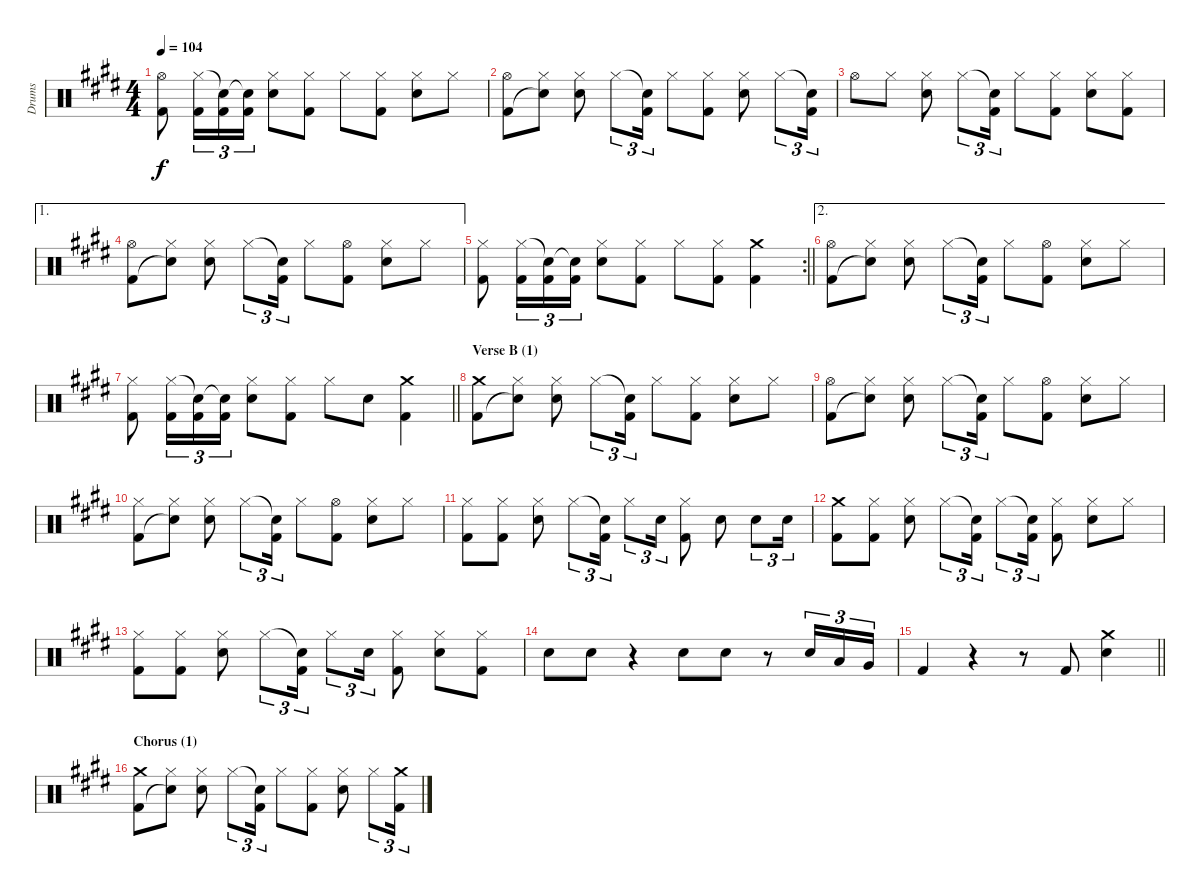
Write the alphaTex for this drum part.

\track ("Drums" "Drums") {instrument percussion}
\staff {score}
\articulation defaults
\ts (4 4)
\tempo 104
\clef neutral
\ks c#minor
("Hi-Hat (open)" "Kick (hit) 2").8{dy f} ("Hi-Hat (closed)" "Kick (hit) 2").16{tu (3 2)} ("Snare (hit)"{t} "Kick (hit) 2").16{tu (3 2)} ("Snare (hit)"{t} "Kick (hit) 2").16{tu (3 2)} ("Hi-Hat (closed)" "Electric Snare (hit)").8 ("Hi-Hat (closed)" "Kick (hit) 2").8 "Hi-Hat (closed)".8 ("Hi-Hat (closed)" "Kick (hit) 2").8 ("Hi-Hat (closed)" "Electric Snare (hit)").8 "Hi-Hat (closed)".8 |
("Hi-Hat (open)" "Kick (hit) 2").8 ("Hi-Hat (closed)" "Snare (hit)"{t}).8 ("Hi-Hat (closed)" "Electric Snare (hit)").8 "Hi-Hat (closed)".8{tu (3 2)} ("Snare (hit)"{t} "Kick (hit) 2").16{tu (3 2)} "Hi-Hat (closed)".8 ("Hi-Hat (closed)" "Kick (hit) 2").8 ("Hi-Hat (closed)" "Electric Snare (hit)").8 "Hi-Hat (closed)".8{tu (3 2)} ("Snare (hit)"{t} "Kick (hit) 2").16{tu (3 2)} |
"Hi-Hat (open)".8 "Hi-Hat (closed)".8 ("Hi-Hat (closed)" "Electric Snare (hit)").8 "Hi-Hat (closed)".8{tu (3 2)} ("Snare (hit)"{t} "Kick (hit) 2").16{tu (3 2)} "Hi-Hat (closed)".8 ("Hi-Hat (closed)" "Kick (hit) 2").8 ("Hi-Hat (closed)" "Electric Snare (hit)").8 ("Hi-Hat (closed)" "Kick (hit) 2").8 |
\ae 1
("Hi-Hat (open)" "Kick (hit) 2").8 ("Hi-Hat (closed)" "Snare (hit)"{t}).8 ("Hi-Hat (closed)" "Electric Snare (hit)").8 "Hi-Hat (closed)".8{tu (3 2)} ("Snare (hit)"{t} "Kick (hit) 2").16{tu (3 2)} "Hi-Hat (closed)".8 ("Hi-Hat (open)" "Kick (hit) 2").8 ("Hi-Hat (closed)" "Electric Snare (hit)").8 "Hi-Hat (closed)".8 |
\rc 2
\barLineRight lightlight
("Hi-Hat (closed)" "Kick (hit) 2").8 ("Hi-Hat (closed)" "Kick (hit) 2").16{tu (3 2)} ("Snare (hit)"{t} "Kick (hit) 2").16{tu (3 2)} ("Snare (hit)"{t} "Kick (hit) 2").16{tu (3 2)} ("Hi-Hat (closed)" "Electric Snare (hit)").8 ("Hi-Hat (closed)" "Kick (hit) 2").8 "Hi-Hat (closed)".8 ("Hi-Hat (closed)" "Kick (hit) 2").8 ("Crash medium (hit)" "Kick (hit) 2").4 |
\ae 2
("Hi-Hat (open)" "Kick (hit) 2").8 ("Hi-Hat (closed)" "Snare (hit)"{t}).8 ("Hi-Hat (closed)" "Electric Snare (hit)").8 "Hi-Hat (closed)".8{tu (3 2)} ("Snare (hit)"{t} "Kick (hit) 2").16{tu (3 2)} "Hi-Hat (closed)".8 ("Hi-Hat (open)" "Kick (hit) 2").8 ("Hi-Hat (closed)" "Electric Snare (hit)").8 "Hi-Hat (closed)".8 |
\barLineRight lightlight
("Hi-Hat (closed)" "Kick (hit) 2").8 ("Hi-Hat (closed)" "Kick (hit) 2").16{tu (3 2)} ("Snare (hit)"{t} "Kick (hit) 2").16{tu (3 2)} ("Snare (hit)"{t} "Kick (hit) 2").16{tu (3 2)} ("Hi-Hat (closed)" "Electric Snare (hit)").8 ("Hi-Hat (closed)" "Kick (hit) 2").8 "Hi-Hat (closed)".8 "Electric Snare (hit)".8 ("Crash medium (hit)" "Kick (hit) 2").4 |
\section ("" "Verse B (1)")
("Crash medium (hit)" "Kick (hit) 2").8 ("Hi-Hat (closed)" "Snare (hit)"{t}).8 ("Hi-Hat (closed)" "Electric Snare (hit)").8 "Hi-Hat (closed)".8{tu (3 2)} ("Snare (hit)"{t} "Kick (hit) 2").16{tu (3 2)} "Hi-Hat (closed)".8 ("Hi-Hat (closed)" "Kick (hit) 2").8 ("Hi-Hat (closed)" "Electric Snare (hit)").8 "Hi-Hat (closed)".8 |
("Hi-Hat (open)" "Kick (hit) 2").8 ("Hi-Hat (closed)" "Snare (hit)"{t}).8 ("Hi-Hat (closed)" "Electric Snare (hit)").8 "Hi-Hat (closed)".8{tu (3 2)} ("Snare (hit)"{t} "Kick (hit) 2").16{tu (3 2)} "Hi-Hat (closed)".8 ("Hi-Hat (open)" "Kick (hit) 2").8 ("Hi-Hat (closed)" "Electric Snare (hit)").8 "Hi-Hat (closed)".8 |
("Hi-Hat (closed)" "Kick (hit) 2").8 ("Hi-Hat (closed)" "Snare (hit)"{t}).8 ("Hi-Hat (closed)" "Electric Snare (hit)").8 "Hi-Hat (closed)".8{tu (3 2)} ("Snare (hit)"{t} "Kick (hit) 2").16{tu (3 2)} "Hi-Hat (closed)".8 ("Hi-Hat (open)" "Kick (hit) 2").8 ("Hi-Hat (closed)" "Electric Snare (hit)").8 "Hi-Hat (closed)".8 |
("Hi-Hat (closed)" "Kick (hit) 2").8 ("Hi-Hat (closed)" "Kick (hit) 2").8 ("Hi-Hat (closed)" "Electric Snare (hit)").8 "Hi-Hat (closed)".8{tu (3 2)} ("Snare (hit)"{t} "Kick (hit) 2").16{tu (3 2)} "Hi-Hat (closed)".8{tu (3 2)} "Electric Snare (hit)".16{tu (3 2)} ("Hi-Hat (closed)" "Kick (hit) 2").8 "Electric Snare (hit)".8 "Electric Snare (hit)".8{tu (3 2)} "Electric Snare (hit)".16{tu (3 2)} |
("Crash medium (hit)" "Kick (hit) 2").8 ("Hi-Hat (closed)" "Kick (hit) 2").8 ("Hi-Hat (closed)" "Electric Snare (hit)").8 "Hi-Hat (closed)".8{tu (3 2)} ("Snare (hit)"{t} "Kick (hit) 2").16{tu (3 2)} "Hi-Hat (closed)".8{tu (3 2)} ("Snare (hit)"{t} "Kick (hit) 2").16{tu (3 2)} ("Hi-Hat (closed)" "Kick (hit) 2").8 ("Hi-Hat (closed)" "Electric Snare (hit)").8 "Hi-Hat (closed)".8 |
("Hi-Hat (closed)" "Kick (hit) 2").8 ("Hi-Hat (closed)" "Kick (hit) 2").8 ("Hi-Hat (closed)" "Electric Snare (hit)").8 "Hi-Hat (closed)".8{tu (3 2)} ("Snare (hit)"{t} "Kick (hit) 2").16{tu (3 2)} "Hi-Hat (closed)".8{tu (3 2)} "Electric Snare (hit)".16{tu (3 2)} ("Hi-Hat (closed)" "Kick (hit) 2").8 ("Hi-Hat (closed)" "Electric Snare (hit)").8 ("Hi-Hat (closed)" "Kick (hit) 2").8 |
"Electric Snare (hit)".8 "Electric Snare (hit)".8 r.4 "Electric Snare (hit)".8 "Electric Snare (hit)".8 r.8 "Electric Snare (hit)".16{tu (3 2)} "Low Tom (hit)".16{tu (3 2)} "Very Low Tom (hit)".16{tu (3 2)} |
\barLineRight lightlight "Kick (hit) 2".4
r.4 r.8 "Kick (hit) 2".8 ("Crash medium (hit)" "Electric Snare (hit)").4 |
\section ("" "Chorus (1)")
("Crash medium (hit)" "Kick (hit) 2").8 ("Hi-Hat (closed)" "Snare (hit)"{t}).8 ("Hi-Hat (closed)" "Electric Snare (hit)").8 "Hi-Hat (closed)".8{tu (3 2)} ("Snare (hit)"{t} "Kick (hit) 2").16{tu (3 2)} "Hi-Hat (closed)".8 ("Hi-Hat (closed)" "Kick (hit) 2").8 ("Hi-Hat (closed)" "Electric Snare (hit)").8 "Hi-Hat (closed)".8{tu (3 2)} ("Crash medium (hit)" "Kick (hit) 2").16{tu (3 2)}
